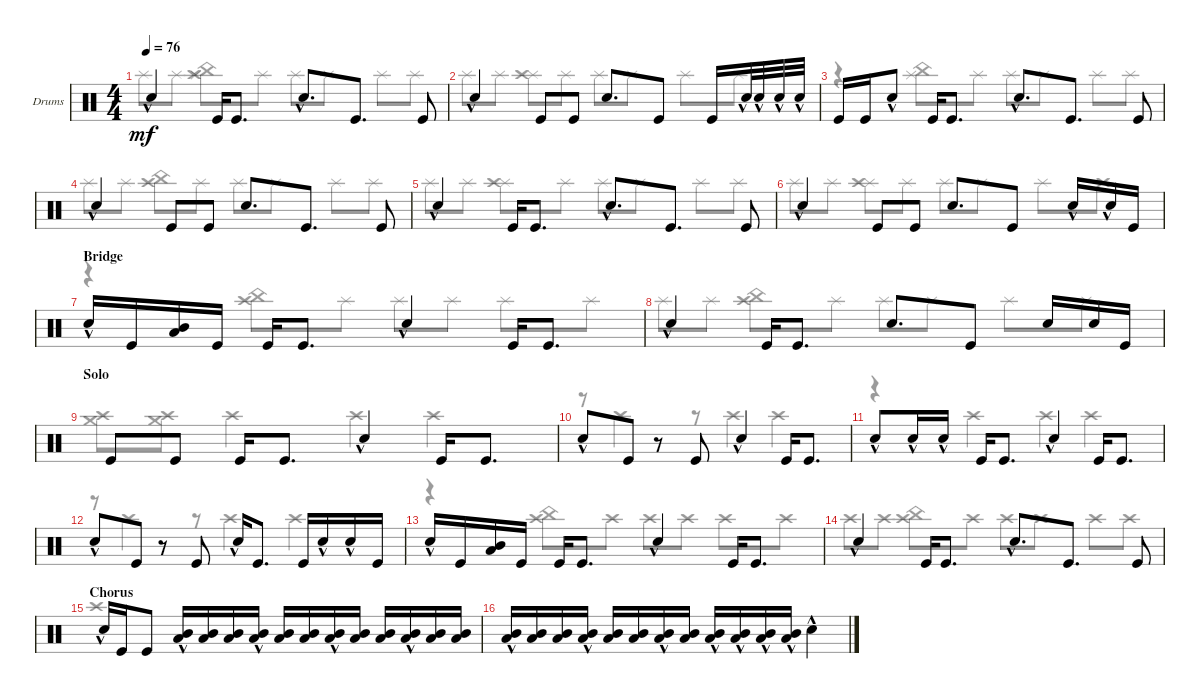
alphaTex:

\defaultSystemsLayout 4
\bracketExtendMode groupsimilarinstruments
\firstSystemTrackNameOrientation horizontal
\otherSystemsTrackNameOrientation horizontal
\track ("Drumkit" "Drums") {instrument percussion}
\staff {score}
\articulation defaults
\voice
\ts (4 4)
\tempo 76
\clef neutral
\ks c "Snare (hit) 2"{hac}.4{dy mf} "Kick (hit)".16 "Kick (hit)".8{d} "Snare (hit) 2"{hac}.8{d} "Kick (hit)".8{d} "Kick (hit)".8
|
"Snare (hit) 2"{hac}.4 "Kick (hit)".8 "Kick (hit)".8 "Snare (hit) 2".8{d} "Kick (hit)".8 "Kick (hit)".16 "Snare (hit) 2"{hac}.32 "Snare (hit) 2"{hac}.32 "Snare (hit) 2"{hac}.32 "Snare (hit) 2"{hac}.32 |
"Kick (hit)".16 "Kick (hit)".16 "Snare (hit) 2"{hac}.8 "Kick (hit)".16 "Kick (hit)".8{d} "Snare (hit) 2"{hac}.8{d} "Kick (hit)".8{d} "Kick (hit)".8 |
"Snare (hit) 2"{hac}.4 "Kick (hit)".8 "Kick (hit)".8 "Snare (hit) 2".8{d} "Kick (hit)".8{d} "Kick (hit)".8 |
"Snare (hit) 2"{hac}.4 "Kick (hit)".16 "Kick (hit)".8{d} "Snare (hit) 2"{hac}.8{d} "Kick (hit)".8{d} "Kick (hit)".8 |
"Snare (hit) 2"{hac}.4 "Kick (hit)".8 "Kick (hit)".8 "Snare (hit) 2".8{d} "Kick (hit)".8 "Snare (hit) 2"{hac}.16 "Snare (hit) 2"{hac}.16 "Kick (hit)".16 |
\section ("" "Bridge")
"Snare (hit) 2"{hac}.16 "Kick (hit)".16 ("Low Tom (hit)" "Mid Tom (hit)").16 "Kick (hit)".16 "Kick (hit)".16 "Kick (hit)".8{d} "Snare (hit) 2"{hac}.4 "Kick (hit)".16 "Kick (hit)".8{d} |
"Snare (hit) 2"{hac}.4 "Kick (hit)".16 "Kick (hit)".8{d} "Snare (hit) 2".8{d} "Kick (hit)".8 "Snare (hit) 2".16 "Snare (hit) 2".16 "Kick (hit)".16 |
\section ("" "Solo")
"Kick (hit)".8 "Kick (hit)".8 "Kick (hit)".16 "Kick (hit)".8{d} "Snare (hit) 2"{hac}.4 "Kick (hit)".16 "Kick (hit)".8{d} |
"Snare (hit) 2"{hac}.8 "Kick (hit)".8 r.8 "Kick (hit)".8 "Snare (hit) 2"{hac}.4 "Kick (hit)".16 "Kick (hit)".8{d} |
"Snare (hit) 2"{hac}.8 "Snare (hit) 2"{hac}.16 "Snare (hit) 2"{hac}.16 "Kick (hit)".16 "Kick (hit)".8{d} "Snare (hit) 2"{hac}.4 "Kick (hit)".16 "Kick (hit)".8{d} |
"Snare (hit) 2"{hac}.8 "Kick (hit)".8 r.8 "Kick (hit)".8 "Snare (hit) 2"{hac}.16 "Kick (hit)".8{d} "Kick (hit)".16 "Snare (hit) 2"{hac}.16 "Snare (hit) 2"{hac}.16 "Kick (hit)".16 |
"Snare (hit) 2"{hac}.16 "Kick (hit)".16 ("Low Tom (hit)" "Mid Tom (hit)").16 "Kick (hit)".16 "Kick (hit)".16 "Kick (hit)".8{d} "Snare (hit) 2"{hac}.4 "Kick (hit)".16 "Kick (hit)".8{d} |
"Snare (hit) 2"{hac}.4 "Kick (hit)".16 "Kick (hit)".8{d} "Snare (hit) 2"{hac}.8{d} "Kick (hit)".8{d} "Kick (hit)".8 |
\section ("" "Chorus")
"Snare (hit) 2"{hac}.16 "Kick (hit)".16 "Kick (hit)".8 ("Mid Tom (hit)"{hac} "Low Tom (hit)"{hac}).16 ("Mid Tom (hit)" "Low Tom (hit)").16 ("Mid Tom (hit)" "Low Tom (hit)").16 ("Mid Tom (hit)"{hac} "Low Tom (hit)"{hac}).16 ("Mid Tom (hit)" "Low Tom (hit)").16 ("Mid Tom (hit)" "Low Tom (hit)").16 ("Mid Tom (hit)"{hac} "Low Tom (hit)"{hac}).16 ("Mid Tom (hit)" "Low Tom (hit)").16 ("Mid Tom (hit)" "Low Tom (hit)").16 ("Mid Tom (hit)"{hac} "Low Tom (hit)"{hac}).16 ("Mid Tom (hit)" "Low Tom (hit)").16 ("Mid Tom (hit)" "Low Tom (hit)").16 |
("Mid Tom (hit)"{hac} "Low Tom (hit)"{hac}).16 ("Mid Tom (hit)" "Low Tom (hit)").16 ("Mid Tom (hit)" "Low Tom (hit)").16 ("Mid Tom (hit)"{hac} "Low Tom (hit)"{hac}).16 ("Mid Tom (hit)" "Low Tom (hit)").16 ("Mid Tom (hit)" "Low Tom (hit)").16 ("Mid Tom (hit)"{hac} "Low Tom (hit)"{hac}).16 ("Mid Tom (hit)" "Low Tom (hit)").16 ("Mid Tom (hit)"{hac} "Low Tom (hit)"{hac}).16 ("Mid Tom (hit)"{hac} "Low Tom (hit)"{hac}).16 ("Mid Tom (hit)"{hac} "Low Tom (hit)"{hac}).16 ("Mid Tom (hit)"{hac} "Low Tom (hit)"{hac}).16 "Snare (hit) 2"{hac}.4
\voice
\clef neutral
\ottava regular
\simile none
\ks c "Splash (hit)".8{dy mf} "Splash (hit)".8
("Splash (hit)" "China (hit)" "Crash high (hit)").8 "Splash (hit)".8 "Splash (hit)".8 "Splash (hit)".8 "Splash (hit)".8 "Splash (hit)".8 |
"Splash (hit)".8 "Splash (hit)".8 ("Splash (hit)" "Crash high (hit)").8 "Splash (hit)".8 "Splash (hit)".8 "Splash (hit)".8 "Splash (hit)".8 "Splash (hit)".8 |
r.4 ("Splash (hit)" "China (hit)").8 "Splash (hit)".8 "Splash (hit)".8 "Splash (hit)".8 "Splash (hit)".8 "Splash (hit)".8 |
"Splash (hit)".8 "Splash (hit)".8 ("China (hit)" "Crash high (hit)").8 "Splash (hit)".8 "Splash (hit)".8 "Splash (hit)".8 "Splash (hit)".8 "Splash (hit)".8 |
"Splash (hit)".8 "Splash (hit)".8 ("Splash (hit)" "Crash high (hit)").8 "Splash (hit)".8 "Splash (hit)".8 "Splash (hit)".8 "Splash (hit)".8 "Splash (hit)".8 |
"Splash (hit)".8 "Splash (hit)".8 ("Splash (hit)" "Crash high (hit)").8 "Splash (hit)".8 "Splash (hit)".8 "Splash (hit)".8 "Splash (hit)".8 "Crash high (hit)".8 |
r.4 ("China (hit)" "Crash high (hit)").8 "Splash (hit)".8 "Splash (hit)".8 "Splash (hit)".8 "Splash (hit)".8 "Splash (hit)".8 |
"Splash (hit)".8 "Splash (hit)".8 ("China (hit)" "Crash high (hit)").8 "Splash (hit)".8 "Splash (hit)".8 "Splash (hit)".8 "Splash (hit)".8 "Splash (hit)".8 |
("Crash medium (hit)" "Crash high (hit)").8 ("Crash medium (hit)" "Crash high (hit)").8 "Crash high (hit)".4 "Crash high (hit)".4 "Crash high (hit)".4 |
r.8 "Crash high (hit)".4 r.8 "Crash high (hit)".4 "Crash high (hit)".4 |
r.4 "Crash high (hit)".4 "Crash high (hit)".4 "Crash high (hit)".4 |
r.8 "Crash high (hit)".4 r.8 "Crash high (hit)".4 "Crash high (hit)".4 |
r.4 ("China (hit)" "Crash high (hit)").8 "Crash high (hit)".8 "Crash high (hit)".8 "Crash high (hit)".8 "Crash high (hit)".8 "Crash high (hit)".8 |
"Crash high (hit)".8 "Crash high (hit)".8 ("China (hit)" "Crash high (hit)").8 "Crash high (hit)".8 "Crash high (hit)".8 "Crash high (hit)".8 "Crash high (hit)".8 "Crash high (hit)".8 |
"Crash high (hit)".1 |
